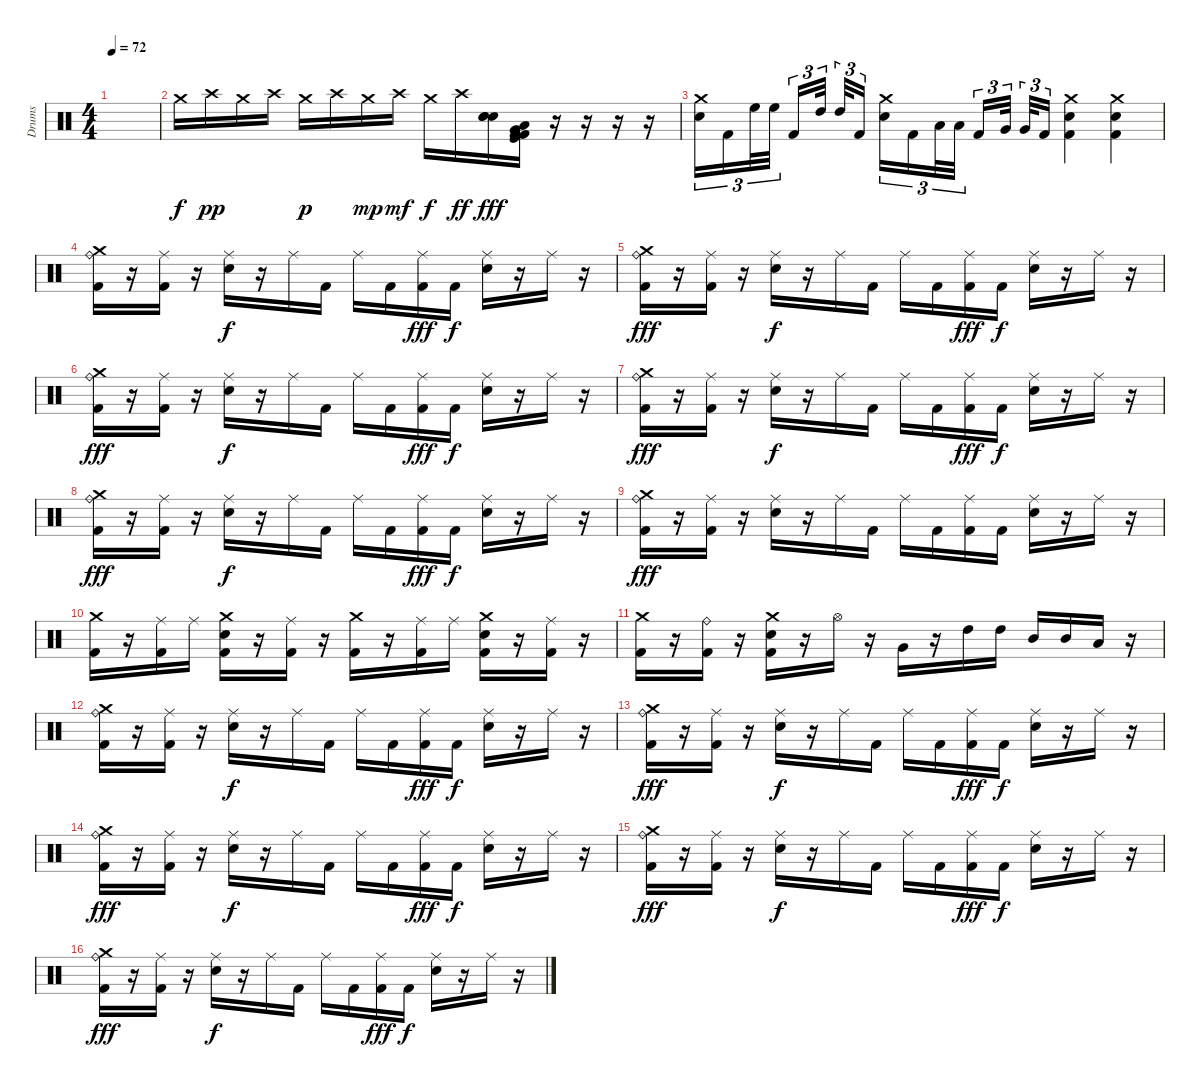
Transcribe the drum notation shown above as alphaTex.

\track ("Drums" "Drums") {instrument percussion}
\staff {score}
\articulation defaults
\ts (4 4)
\tempo 72
\clef neutral
\ks c
|
"Crash medium (hit)".16 "Crash high (hit)".16{dy pp} "Crash medium (hit)".16 "Crash high (hit)".16 "Crash medium (hit)".16{dy p} "Crash high (hit)".16 "Crash medium (hit)".16{dy mp} "Crash high (hit)".16{dy mf} "Crash medium (hit)".16{dy f} "Crash high (hit)".16{dy ff} ("Snare (hit) 2" "Electric Snare (hit)" "Snare (hit) 2").16{dy fff} ("Kick (hit) 2" "Very Low Tom (hit)" "Kick (hit)" "Low Floor Tom (hit)" "Kick (hit) 2").16 r.16 r.16 r.16 r.16 |
("Snare (hit) 2" "Crash medium (hit)").16{tu (3 2)} "Kick (hit) 2".16{tu (3 2)} "High Floor Tom (hit)".32{tu (3 2)} "High Floor Tom (hit)".32{tu (3 2) beam splitsecondary} "Kick (hit) 2".16{tu (3 2)} "High Tom (hit)".32{tu (3 2) beam splitsecondary} "High Tom (hit)".32{tu (3 2)} "Kick (hit) 2".16{tu (3 2)} ("Snare (hit) 2" "Crash medium (hit)").16{tu (3 2)} "Kick (hit) 2".16{tu (3 2)} "Low Floor Tom (hit)".32{tu (3 2)} "Low Floor Tom (hit)".32{tu (3 2) beam splitsecondary} "Kick (hit) 2".16{tu (3 2)} "Very Low Tom (hit)".32{tu (3 2) beam splitsecondary} "Very Low Tom (hit)".32{tu (3 2)} "Kick (hit) 2".16{tu (3 2)} ("Snare (hit) 2" "Crash medium (hit)" "Kick (hit) 2").4 ("Snare (hit) 2" "Crash medium (hit)" "Kick (hit) 2").4 |
("Crash medium (hit)" "Ride (bell)" "Kick (hit) 2").16 r.16 ("Ride (middle)" "Kick (hit) 2").16 r.16 ("Ride (middle)" "Snare (hit) 2").16{dy f} r.16 "Ride (middle)".16 "Kick (hit) 2".16 "Ride (middle)".16 "Kick (hit) 2".16 ("Ride (middle)" "Kick (hit) 2").16{dy fff} "Kick (hit) 2".16{dy f} ("Ride (middle)" "Snare (hit) 2").16 r.16 "Ride (middle)".16 r.16 |
("Crash medium (hit)" "Ride (bell)" "Kick (hit) 2").16{dy fff} r.16 ("Ride (middle)" "Kick (hit) 2").16 r.16 ("Ride (middle)" "Snare (hit) 2").16{dy f} r.16 "Ride (middle)".16 "Kick (hit) 2".16 "Ride (middle)".16 "Kick (hit) 2".16 ("Ride (middle)" "Kick (hit) 2").16{dy fff} "Kick (hit) 2".16{dy f} ("Ride (middle)" "Snare (hit) 2").16 r.16 "Ride (middle)".16 r.16 |
("Crash medium (hit)" "Ride (bell)" "Kick (hit) 2").16{dy fff} r.16 ("Ride (middle)" "Kick (hit) 2").16 r.16 ("Ride (middle)" "Snare (hit) 2").16{dy f} r.16 "Ride (middle)".16 "Kick (hit) 2".16 "Ride (middle)".16 "Kick (hit) 2".16 ("Ride (middle)" "Kick (hit) 2").16{dy fff} "Kick (hit) 2".16{dy f} ("Ride (middle)" "Snare (hit) 2").16 r.16 "Ride (middle)".16 r.16 |
("Crash medium (hit)" "Ride (bell)" "Kick (hit) 2").16{dy fff} r.16 ("Ride (middle)" "Kick (hit) 2").16 r.16 ("Ride (middle)" "Snare (hit) 2").16{dy f} r.16 "Ride (middle)".16 "Kick (hit) 2".16 "Ride (middle)".16 "Kick (hit) 2".16 ("Ride (middle)" "Kick (hit) 2").16{dy fff} "Kick (hit) 2".16{dy f} ("Ride (middle)" "Snare (hit) 2").16 r.16 "Ride (middle)".16 r.16 |
("Crash medium (hit)" "Ride (bell)" "Kick (hit) 2").16{dy fff} r.16 ("Ride (middle)" "Kick (hit) 2").16 r.16 ("Ride (middle)" "Snare (hit) 2").16{dy f} r.16 "Ride (middle)".16 "Kick (hit) 2".16 "Ride (middle)".16 "Kick (hit) 2".16 ("Ride (middle)" "Kick (hit) 2").16{dy fff} "Kick (hit) 2".16{dy f} ("Ride (middle)" "Snare (hit) 2").16 r.16 "Ride (middle)".16 r.16 |
("Crash medium (hit)" "Ride (bell)" "Kick (hit) 2").16{dy fff} r.16 ("Ride (middle)" "Kick (hit) 2").16 r.16 ("Ride (middle)" "Snare (hit) 2").16 r.16 "Ride (middle)".16 "Kick (hit) 2".16 "Ride (middle)".16 "Kick (hit) 2".16 ("Ride (middle)" "Kick (hit) 2").16 "Kick (hit) 2".16 ("Ride (middle)" "Snare (hit) 2").16 r.16 "Ride (middle)".16 r.16 |
("Crash medium (hit)" "Kick (hit) 2").16 r.16 ("Ride (middle)" "Kick (hit) 2").16 "Ride (middle)".16 ("Crash medium (hit)" "Snare (hit) 2" "Kick (hit) 2").16 r.16 ("Ride (middle)" "Kick (hit) 2").16 r.16 ("Crash medium (hit)" "Kick (hit) 2").16 r.16 ("Ride (middle)" "Kick (hit) 2").16 "Ride (middle)".16 ("Crash medium (hit)" "Snare (hit) 2" "Kick (hit) 2").16 r.16 ("Ride (middle)" "Kick (hit) 2").16 r.16 |
("Crash medium (hit)" "Kick (hit) 2").16 r.16 ("Ride (bell)" "Kick (hit) 2").16 r.16 ("Crash medium (hit)" "Snare (hit) 2" "Kick (hit) 2").16 r.16 "Hi-Hat (open)".16 r.16 "Very Low Tom (hit)".16 r.16 "High Tom (hit)".16 "High Tom (hit)".16 "Mid Tom (hit)".16 "Mid Tom (hit)".16 "Low Tom (hit)".16 r.16 |
("Crash medium (hit)" "Ride (bell)" "Kick (hit) 2").16 r.16 ("Ride (middle)" "Kick (hit) 2").16 r.16 ("Ride (middle)" "Snare (hit) 2").16{dy f} r.16 "Ride (middle)".16 "Kick (hit) 2".16 "Ride (middle)".16 "Kick (hit) 2".16 ("Ride (middle)" "Kick (hit) 2").16{dy fff} "Kick (hit) 2".16{dy f} ("Ride (middle)" "Snare (hit) 2").16 r.16 "Ride (middle)".16 r.16 |
("Crash medium (hit)" "Ride (bell)" "Kick (hit) 2").16{dy fff} r.16 ("Ride (middle)" "Kick (hit) 2").16 r.16 ("Ride (middle)" "Snare (hit) 2").16{dy f} r.16 "Ride (middle)".16 "Kick (hit) 2".16 "Ride (middle)".16 "Kick (hit) 2".16 ("Ride (middle)" "Kick (hit) 2").16{dy fff} "Kick (hit) 2".16{dy f} ("Ride (middle)" "Snare (hit) 2").16 r.16 "Ride (middle)".16 r.16 |
("Crash medium (hit)" "Ride (bell)" "Kick (hit) 2").16{dy fff} r.16 ("Ride (middle)" "Kick (hit) 2").16 r.16 ("Ride (middle)" "Snare (hit) 2").16{dy f} r.16 "Ride (middle)".16 "Kick (hit) 2".16 "Ride (middle)".16 "Kick (hit) 2".16 ("Ride (middle)" "Kick (hit) 2").16{dy fff} "Kick (hit) 2".16{dy f} ("Ride (middle)" "Snare (hit) 2").16 r.16 "Ride (middle)".16 r.16 |
("Crash medium (hit)" "Ride (bell)" "Kick (hit) 2").16{dy fff} r.16 ("Ride (middle)" "Kick (hit) 2").16 r.16 ("Ride (middle)" "Snare (hit) 2").16{dy f} r.16 "Ride (middle)".16 "Kick (hit) 2".16 "Ride (middle)".16 "Kick (hit) 2".16 ("Ride (middle)" "Kick (hit) 2").16{dy fff} "Kick (hit) 2".16{dy f} ("Ride (middle)" "Snare (hit) 2").16 r.16 "Ride (middle)".16 r.16 |
("Crash medium (hit)" "Ride (bell)" "Kick (hit) 2").16{dy fff} r.16 ("Ride (middle)" "Kick (hit) 2").16 r.16 ("Ride (middle)" "Snare (hit) 2").16{dy f} r.16 "Ride (middle)".16 "Kick (hit) 2".16 "Ride (middle)".16 "Kick (hit) 2".16 ("Ride (middle)" "Kick (hit) 2").16{dy fff} "Kick (hit) 2".16{dy f} ("Ride (middle)" "Snare (hit) 2").16 r.16 "Ride (middle)".16 r.16
